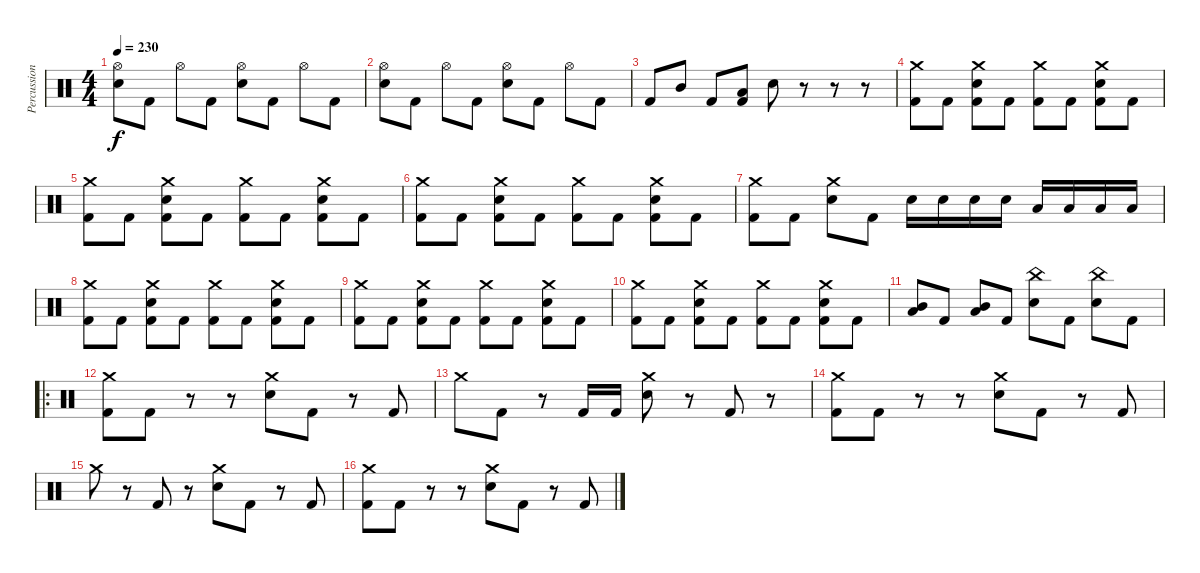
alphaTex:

\track ("Percussions" "Percussion") {instrument percussion}
\staff {score}
\articulation defaults
\ts (4 4)
\tempo 230
\clef neutral
\ks c
("Electric Snare (hit)" "Hi-Hat (open)").8{dy f} "Kick (hit) 2".8 "Hi-Hat (open)".8 "Kick (hit) 2".8 ("Electric Snare (hit)" "Hi-Hat (open)").8 "Kick (hit) 2".8 "Hi-Hat (open)".8 "Kick (hit) 2".8 |
("Electric Snare (hit)" "Hi-Hat (open)").8 "Kick (hit) 2".8 "Hi-Hat (open)".8 "Kick (hit) 2".8 ("Electric Snare (hit)" "Hi-Hat (open)").8 "Kick (hit) 2".8 "Hi-Hat (open)".8 "Kick (hit) 2".8 |
"Kick (hit) 2".8 "Mid Tom (hit)".8 "Kick (hit) 2".8 ("Kick (hit) 2" "Low Tom (hit)").8 "Electric Snare (hit)".8 r.8 r.8 r.8 |
("Kick (hit) 2" "Crash medium (hit)").8 "Kick (hit) 2".8 ("Kick (hit) 2" "Electric Snare (hit)" "Crash medium (hit)").8 "Kick (hit) 2".8 ("Kick (hit) 2" "Crash medium (hit)").8 "Kick (hit) 2".8 ("Kick (hit) 2" "Electric Snare (hit)" "Crash medium (hit)").8 "Kick (hit) 2".8 |
("Kick (hit) 2" "Crash medium (hit)").8 "Kick (hit) 2".8 ("Kick (hit) 2" "Electric Snare (hit)" "Crash medium (hit)").8 "Kick (hit) 2".8 ("Kick (hit) 2" "Crash medium (hit)").8 "Kick (hit) 2".8 ("Kick (hit) 2" "Electric Snare (hit)" "Crash medium (hit)").8 "Kick (hit) 2".8 |
("Kick (hit) 2" "Crash medium (hit)").8 "Kick (hit) 2".8 ("Kick (hit) 2" "Electric Snare (hit)" "Crash medium (hit)").8 "Kick (hit) 2".8 ("Kick (hit) 2" "Crash medium (hit)").8 "Kick (hit) 2".8 ("Kick (hit) 2" "Electric Snare (hit)" "Crash medium (hit)").8 "Kick (hit) 2".8 |
("Kick (hit) 2" "Crash medium (hit)").8 "Kick (hit) 2".8 ("Electric Snare (hit)" "Crash medium (hit)").8 "Kick (hit) 2".8 "Electric Snare (hit)".16 "Electric Snare (hit)".16 "Electric Snare (hit)".16 "Electric Snare (hit)".16 "Low Tom (hit)".16 "Low Tom (hit)".16 "Low Tom (hit)".16 "Low Tom (hit)".16 |
("Kick (hit) 2" "Crash medium (hit)").8 "Kick (hit) 2".8 ("Kick (hit) 2" "Electric Snare (hit)" "Crash medium (hit)").8 "Kick (hit) 2".8 ("Kick (hit) 2" "Crash medium (hit)").8 "Kick (hit) 2".8 ("Kick (hit) 2" "Electric Snare (hit)" "Crash medium (hit)").8 "Kick (hit) 2".8 |
("Kick (hit) 2" "Crash medium (hit)").8 "Kick (hit) 2".8 ("Kick (hit) 2" "Electric Snare (hit)" "Crash medium (hit)").8 "Kick (hit) 2".8 ("Kick (hit) 2" "Crash medium (hit)").8 "Kick (hit) 2".8 ("Kick (hit) 2" "Electric Snare (hit)" "Crash medium (hit)").8 "Kick (hit) 2".8 |
("Kick (hit) 2" "Crash medium (hit)").8 "Kick (hit) 2".8 ("Kick (hit) 2" "Electric Snare (hit)" "Crash medium (hit)").8 "Kick (hit) 2".8 ("Kick (hit) 2" "Crash medium (hit)").8 "Kick (hit) 2".8 ("Kick (hit) 2" "Electric Snare (hit)" "Crash medium (hit)").8 "Kick (hit) 2".8 |
("Low Tom (hit)" "Mid Tom (hit)").8 "Kick (hit) 2".8 ("Low Tom (hit)" "Mid Tom (hit)").8 "Kick (hit) 2".8 ("Electric Snare (hit)" "China (hit)").8 "Kick (hit) 2".8 ("Electric Snare (hit)" "China (hit)").8 "Kick (hit) 2".8 |
\ro
("Kick (hit) 2" "Crash medium (hit)").8 "Kick (hit) 2".8 r.8 r.8 ("Electric Snare (hit)" "Crash medium (hit)").8 "Kick (hit) 2".8 r.8 "Kick (hit) 2".8 |
"Crash medium (hit)".8 "Kick (hit) 2".8 r.8 "Kick (hit) 2".16 "Kick (hit) 2".16 ("Electric Snare (hit)" "Crash medium (hit)").8 r.8 "Kick (hit) 2".8 r.8 |
("Kick (hit) 2" "Crash medium (hit)").8 "Kick (hit) 2".8 r.8 r.8 ("Electric Snare (hit)" "Crash medium (hit)").8 "Kick (hit) 2".8 r.8 "Kick (hit) 2".8 |
"Crash medium (hit)".8 r.8 "Kick (hit) 2".8 r.8 ("Electric Snare (hit)" "Crash medium (hit)").8 "Kick (hit) 2".8 r.8 "Kick (hit) 2".8 |
("Kick (hit) 2" "Crash medium (hit)").8 "Kick (hit) 2".8 r.8 r.8 ("Electric Snare (hit)" "Crash medium (hit)").8 "Kick (hit) 2".8 r.8 "Kick (hit) 2".8
